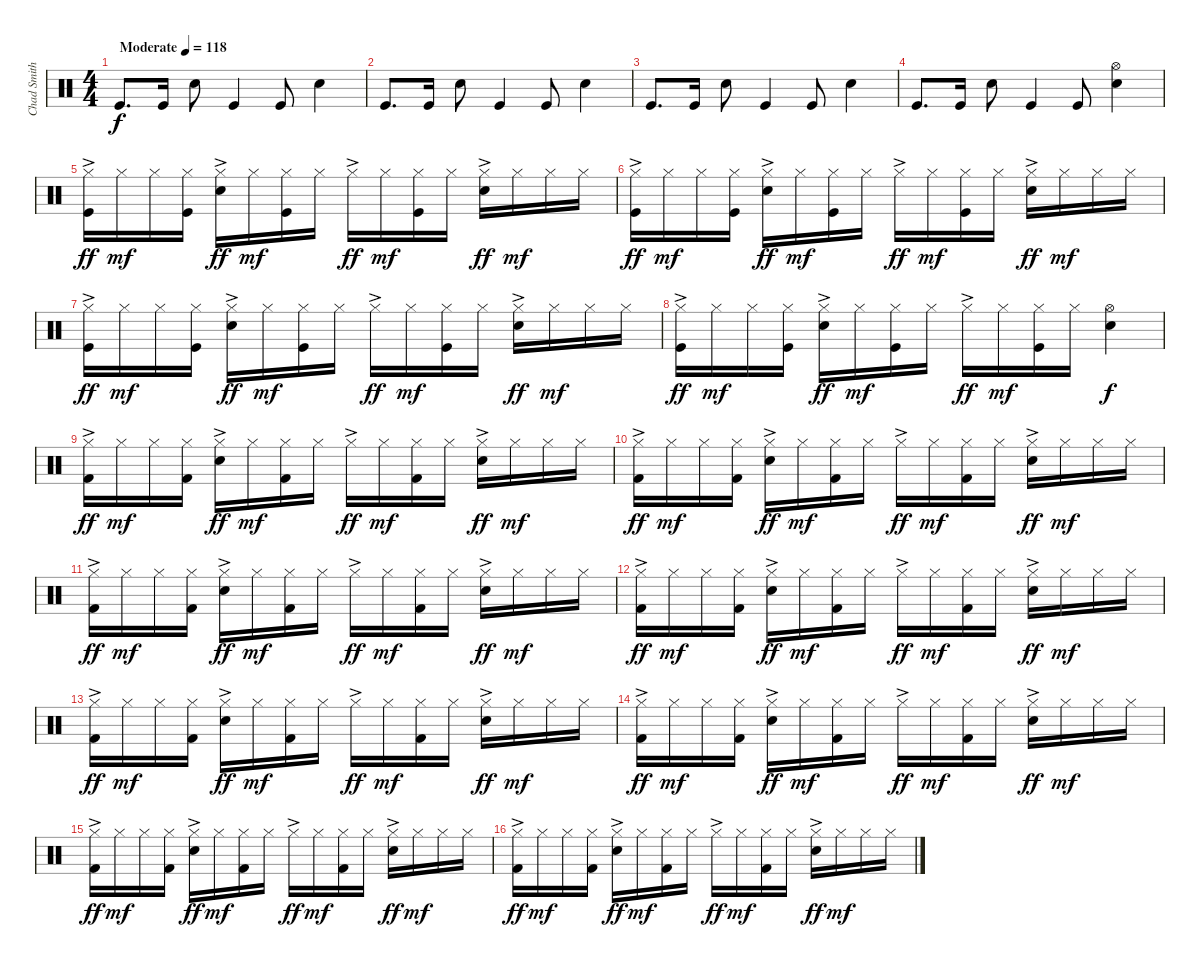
\track ("Chad Smith" "Chad Smith") {instrument percussion}
\staff {score}
\articulation defaults
\ts (4 4)
\tempo (118 "Moderate")
\clef neutral
\ks c "Kick (hit)".8{d dy f} "Kick (hit)".16 "Snare (hit) 2".8 "Kick (hit)".4 "Kick (hit)".8 "Snare (hit) 2".4
|
"Kick (hit)".8{d} "Kick (hit)".16 "Snare (hit) 2".8 "Kick (hit)".4 "Kick (hit)".8 "Snare (hit) 2".4 |
"Kick (hit)".8{d} "Kick (hit)".16 "Snare (hit) 2".8 "Kick (hit)".4 "Kick (hit)".8 "Snare (hit) 2".4 |
"Kick (hit)".8{d} "Kick (hit)".16 "Snare (hit) 2".8 "Kick (hit)".4 "Kick (hit)".8 ("Hi-Hat (open)" "Snare (hit) 2").4 |
("Hi-Hat (closed)"{ac} "Kick (hit)").16{dy ff} "Hi-Hat (closed)".16{dy mf} "Hi-Hat (closed)".16 ("Hi-Hat (closed)" "Kick (hit)").16 ("Hi-Hat (closed)"{ac} "Snare (hit) 2").16{dy ff} "Hi-Hat (closed)".16{dy mf} ("Hi-Hat (closed)" "Kick (hit)").16 "Hi-Hat (closed)".16 "Hi-Hat (closed)"{ac}.16{dy ff} "Hi-Hat (closed)".16{dy mf} ("Hi-Hat (closed)" "Kick (hit)").16 "Hi-Hat (closed)".16 ("Hi-Hat (closed)"{ac} "Snare (hit) 2").16{dy ff} "Hi-Hat (closed)".16{dy mf} "Hi-Hat (closed)".16 "Hi-Hat (closed)".16 |
("Hi-Hat (closed)"{ac} "Kick (hit)").16{dy ff} "Hi-Hat (closed)".16{dy mf} "Hi-Hat (closed)".16 ("Hi-Hat (closed)" "Kick (hit)").16 ("Hi-Hat (closed)"{ac} "Snare (hit) 2").16{dy ff} "Hi-Hat (closed)".16{dy mf} ("Hi-Hat (closed)" "Kick (hit)").16 "Hi-Hat (closed)".16 "Hi-Hat (closed)"{ac}.16{dy ff} "Hi-Hat (closed)".16{dy mf} ("Hi-Hat (closed)" "Kick (hit)").16 "Hi-Hat (closed)".16 ("Hi-Hat (closed)"{ac} "Snare (hit) 2").16{dy ff} "Hi-Hat (closed)".16{dy mf} "Hi-Hat (closed)".16 "Hi-Hat (closed)".16 |
("Hi-Hat (closed)"{ac} "Kick (hit)").16{dy ff} "Hi-Hat (closed)".16{dy mf} "Hi-Hat (closed)".16 ("Hi-Hat (closed)" "Kick (hit)").16 ("Hi-Hat (closed)"{ac} "Snare (hit) 2").16{dy ff} "Hi-Hat (closed)".16{dy mf} ("Hi-Hat (closed)" "Kick (hit)").16 "Hi-Hat (closed)".16 "Hi-Hat (closed)"{ac}.16{dy ff} "Hi-Hat (closed)".16{dy mf} ("Hi-Hat (closed)" "Kick (hit)").16 "Hi-Hat (closed)".16 ("Hi-Hat (closed)"{ac} "Snare (hit) 2").16{dy ff} "Hi-Hat (closed)".16{dy mf} "Hi-Hat (closed)".16 "Hi-Hat (closed)".16 |
("Hi-Hat (closed)"{ac} "Kick (hit)").16{dy ff} "Hi-Hat (closed)".16{dy mf} "Hi-Hat (closed)".16 ("Hi-Hat (closed)" "Kick (hit)").16 ("Hi-Hat (closed)"{ac} "Snare (hit) 2").16{dy ff} "Hi-Hat (closed)".16{dy mf} ("Hi-Hat (closed)" "Kick (hit)").16 "Hi-Hat (closed)".16 "Hi-Hat (closed)"{ac}.16{dy ff} "Hi-Hat (closed)".16{dy mf} ("Hi-Hat (closed)" "Kick (hit)").16 "Hi-Hat (closed)".16 ("Hi-Hat (open)" "Snare (hit) 2").4{dy f} |
("Hi-Hat (closed)"{ac} "Kick (hit) 2").16{dy ff} "Hi-Hat (closed)".16{dy mf} "Hi-Hat (closed)".16 ("Hi-Hat (closed)" "Kick (hit) 2").16 ("Hi-Hat (closed)"{ac} "Electric Snare (hit)").16{dy ff} "Hi-Hat (closed)".16{dy mf} ("Hi-Hat (closed)" "Kick (hit) 2").16 "Hi-Hat (closed)".16 "Hi-Hat (closed)"{ac}.16{dy ff} "Hi-Hat (closed)".16{dy mf} ("Hi-Hat (closed)" "Kick (hit) 2").16 "Hi-Hat (closed)".16 ("Hi-Hat (closed)"{ac} "Electric Snare (hit)").16{dy ff} "Hi-Hat (closed)".16{dy mf} "Hi-Hat (closed)".16 "Hi-Hat (closed)".16 |
("Hi-Hat (closed)"{ac} "Kick (hit) 2").16{dy ff} "Hi-Hat (closed)".16{dy mf} "Hi-Hat (closed)".16 ("Hi-Hat (closed)" "Kick (hit) 2").16 ("Hi-Hat (closed)"{ac} "Electric Snare (hit)").16{dy ff} "Hi-Hat (closed)".16{dy mf} ("Hi-Hat (closed)" "Kick (hit) 2").16 "Hi-Hat (closed)".16 "Hi-Hat (closed)"{ac}.16{dy ff} "Hi-Hat (closed)".16{dy mf} ("Hi-Hat (closed)" "Kick (hit) 2").16 "Hi-Hat (closed)".16 ("Hi-Hat (closed)"{ac} "Electric Snare (hit)").16{dy ff} "Hi-Hat (closed)".16{dy mf} "Hi-Hat (closed)".16 "Hi-Hat (closed)".16 |
("Hi-Hat (closed)"{ac} "Kick (hit) 2").16{dy ff} "Hi-Hat (closed)".16{dy mf} "Hi-Hat (closed)".16 ("Hi-Hat (closed)" "Kick (hit) 2").16 ("Hi-Hat (closed)"{ac} "Electric Snare (hit)").16{dy ff} "Hi-Hat (closed)".16{dy mf} ("Hi-Hat (closed)" "Kick (hit) 2").16 "Hi-Hat (closed)".16 "Hi-Hat (closed)"{ac}.16{dy ff} "Hi-Hat (closed)".16{dy mf} ("Hi-Hat (closed)" "Kick (hit) 2").16 "Hi-Hat (closed)".16 ("Hi-Hat (closed)"{ac} "Electric Snare (hit)").16{dy ff} "Hi-Hat (closed)".16{dy mf} "Hi-Hat (closed)".16 "Hi-Hat (closed)".16 |
("Hi-Hat (closed)"{ac} "Kick (hit) 2").16{dy ff} "Hi-Hat (closed)".16{dy mf} "Hi-Hat (closed)".16 ("Hi-Hat (closed)" "Kick (hit) 2").16 ("Hi-Hat (closed)"{ac} "Electric Snare (hit)").16{dy ff} "Hi-Hat (closed)".16{dy mf} ("Hi-Hat (closed)" "Kick (hit) 2").16 "Hi-Hat (closed)".16 "Hi-Hat (closed)"{ac}.16{dy ff} "Hi-Hat (closed)".16{dy mf} ("Hi-Hat (closed)" "Kick (hit) 2").16 "Hi-Hat (closed)".16 ("Hi-Hat (closed)"{ac} "Electric Snare (hit)").16{dy ff} "Hi-Hat (closed)".16{dy mf} "Hi-Hat (closed)".16 "Hi-Hat (closed)".16 |
("Hi-Hat (closed)"{ac} "Kick (hit) 2").16{dy ff} "Hi-Hat (closed)".16{dy mf} "Hi-Hat (closed)".16 ("Hi-Hat (closed)" "Kick (hit) 2").16 ("Hi-Hat (closed)"{ac} "Electric Snare (hit)").16{dy ff} "Hi-Hat (closed)".16{dy mf} ("Hi-Hat (closed)" "Kick (hit) 2").16 "Hi-Hat (closed)".16 "Hi-Hat (closed)"{ac}.16{dy ff} "Hi-Hat (closed)".16{dy mf} ("Hi-Hat (closed)" "Kick (hit) 2").16 "Hi-Hat (closed)".16 ("Hi-Hat (closed)"{ac} "Electric Snare (hit)").16{dy ff} "Hi-Hat (closed)".16{dy mf} "Hi-Hat (closed)".16 "Hi-Hat (closed)".16 |
("Hi-Hat (closed)"{ac} "Kick (hit) 2").16{dy ff} "Hi-Hat (closed)".16{dy mf} "Hi-Hat (closed)".16 ("Hi-Hat (closed)" "Kick (hit) 2").16 ("Hi-Hat (closed)"{ac} "Electric Snare (hit)").16{dy ff} "Hi-Hat (closed)".16{dy mf} ("Hi-Hat (closed)" "Kick (hit) 2").16 "Hi-Hat (closed)".16 "Hi-Hat (closed)"{ac}.16{dy ff} "Hi-Hat (closed)".16{dy mf} ("Hi-Hat (closed)" "Kick (hit) 2").16 "Hi-Hat (closed)".16 ("Hi-Hat (closed)"{ac} "Electric Snare (hit)").16{dy ff} "Hi-Hat (closed)".16{dy mf} "Hi-Hat (closed)".16 "Hi-Hat (closed)".16 |
("Hi-Hat (closed)"{ac} "Kick (hit) 2").16{dy ff} "Hi-Hat (closed)".16{dy mf} "Hi-Hat (closed)".16 ("Hi-Hat (closed)" "Kick (hit) 2").16 ("Hi-Hat (closed)"{ac} "Electric Snare (hit)").16{dy ff} "Hi-Hat (closed)".16{dy mf} ("Hi-Hat (closed)" "Kick (hit) 2").16 "Hi-Hat (closed)".16 "Hi-Hat (closed)"{ac}.16{dy ff} "Hi-Hat (closed)".16{dy mf} ("Hi-Hat (closed)" "Kick (hit) 2").16 "Hi-Hat (closed)".16 ("Hi-Hat (closed)"{ac} "Electric Snare (hit)").16{dy ff} "Hi-Hat (closed)".16{dy mf} "Hi-Hat (closed)".16 "Hi-Hat (closed)".16 |
("Hi-Hat (closed)"{ac} "Kick (hit) 2").16{dy ff} "Hi-Hat (closed)".16{dy mf} "Hi-Hat (closed)".16 ("Hi-Hat (closed)" "Kick (hit) 2").16 ("Hi-Hat (closed)"{ac} "Electric Snare (hit)").16{dy ff} "Hi-Hat (closed)".16{dy mf} ("Hi-Hat (closed)" "Kick (hit) 2").16 "Hi-Hat (closed)".16 "Hi-Hat (closed)"{ac}.16{dy ff} "Hi-Hat (closed)".16{dy mf} ("Hi-Hat (closed)" "Kick (hit) 2").16 "Hi-Hat (closed)".16 ("Hi-Hat (closed)"{ac} "Electric Snare (hit)").16{dy ff} "Hi-Hat (closed)".16{dy mf} "Hi-Hat (closed)".16 "Hi-Hat (closed)".16
